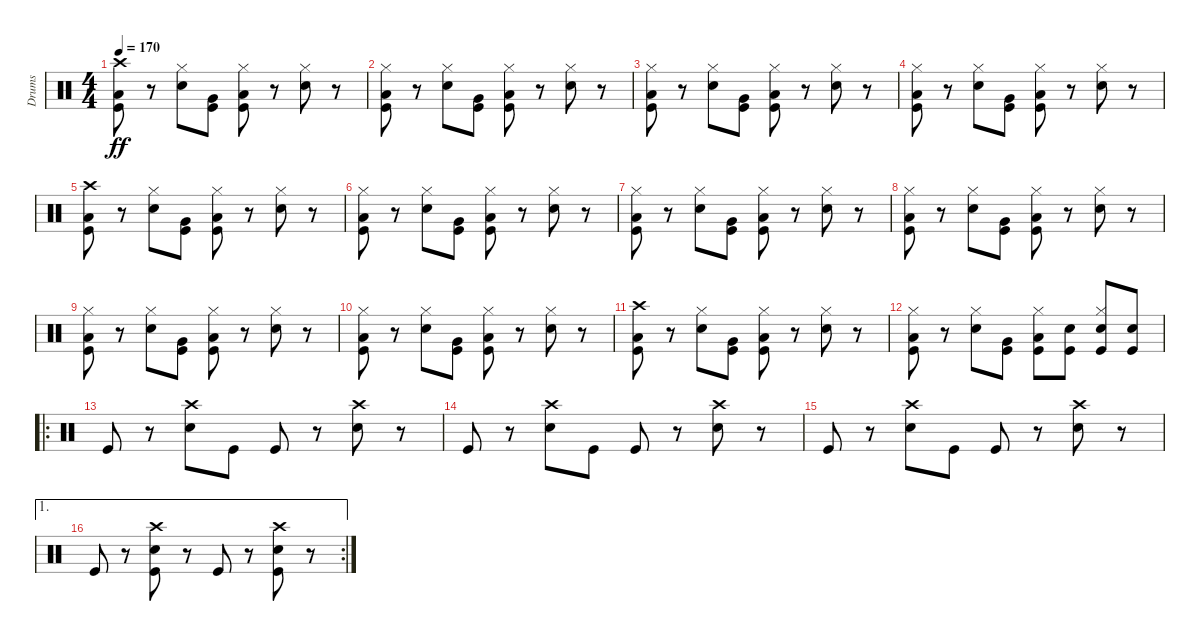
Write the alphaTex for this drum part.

\track ("Drums" "Drums") {instrument percussion}
\staff {score}
\articulation defaults
\ts (4 4)
\tempo 170
\clef neutral
\ks c
("Crash high (hit)" "Low Floor Tom (hit)" "Kick (hit)").8{dy ff} r.8 ("Hi-Hat (closed)" "Snare (hit) 2").8 ("Very Low Tom (hit)" "Kick (hit)").8 ("Hi-Hat (closed)" "Low Floor Tom (hit)" "Kick (hit)").8 r.8 ("Hi-Hat (closed)" "Snare (hit) 2").8 r.8 |
("Hi-Hat (closed)" "Low Floor Tom (hit)" "Kick (hit)").8 r.8 ("Hi-Hat (closed)" "Snare (hit) 2").8 ("Very Low Tom (hit)" "Kick (hit)").8 ("Hi-Hat (closed)" "Low Floor Tom (hit)" "Kick (hit)").8 r.8 ("Hi-Hat (closed)" "Snare (hit) 2").8 r.8 |
("Hi-Hat (closed)" "Low Floor Tom (hit)" "Kick (hit)").8 r.8 ("Hi-Hat (closed)" "Snare (hit) 2").8 ("Very Low Tom (hit)" "Kick (hit)").8 ("Hi-Hat (closed)" "Low Floor Tom (hit)" "Kick (hit)").8 r.8 ("Hi-Hat (closed)" "Snare (hit) 2").8 r.8 |
("Hi-Hat (closed)" "Low Floor Tom (hit)" "Kick (hit)").8 r.8 ("Hi-Hat (closed)" "Snare (hit) 2").8 ("Very Low Tom (hit)" "Kick (hit)").8 ("Hi-Hat (closed)" "Low Floor Tom (hit)" "Kick (hit)").8 r.8 ("Hi-Hat (closed)" "Snare (hit) 2").8 r.8 |
("Crash high (hit)" "Low Floor Tom (hit)" "Kick (hit)").8 r.8 ("Hi-Hat (closed)" "Snare (hit) 2").8 ("Very Low Tom (hit)" "Kick (hit)").8 ("Hi-Hat (closed)" "Low Floor Tom (hit)" "Kick (hit)").8 r.8 ("Hi-Hat (closed)" "Snare (hit) 2").8 r.8 |
("Hi-Hat (closed)" "Low Floor Tom (hit)" "Kick (hit)").8 r.8 ("Hi-Hat (closed)" "Snare (hit) 2").8 ("Very Low Tom (hit)" "Kick (hit)").8 ("Hi-Hat (closed)" "Low Floor Tom (hit)" "Kick (hit)").8 r.8 ("Hi-Hat (closed)" "Snare (hit) 2").8 r.8 |
("Hi-Hat (closed)" "Low Floor Tom (hit)" "Kick (hit)").8 r.8 ("Hi-Hat (closed)" "Snare (hit) 2").8 ("Very Low Tom (hit)" "Kick (hit)").8 ("Hi-Hat (closed)" "Low Floor Tom (hit)" "Kick (hit)").8 r.8 ("Hi-Hat (closed)" "Snare (hit) 2").8 r.8 |
("Hi-Hat (closed)" "Low Floor Tom (hit)" "Kick (hit)").8 r.8 ("Hi-Hat (closed)" "Snare (hit) 2").8 ("Very Low Tom (hit)" "Kick (hit)").8 ("Hi-Hat (closed)" "Low Floor Tom (hit)" "Kick (hit)").8 r.8 ("Hi-Hat (closed)" "Snare (hit) 2").8 r.8 |
("Hi-Hat (closed)" "Low Floor Tom (hit)" "Kick (hit)").8 r.8 ("Hi-Hat (closed)" "Snare (hit) 2").8 ("Very Low Tom (hit)" "Kick (hit)").8 ("Hi-Hat (closed)" "Low Floor Tom (hit)" "Kick (hit)").8 r.8 ("Hi-Hat (closed)" "Snare (hit) 2").8 r.8 |
("Hi-Hat (closed)" "Low Floor Tom (hit)" "Kick (hit)").8 r.8 ("Hi-Hat (closed)" "Snare (hit) 2").8 ("Very Low Tom (hit)" "Kick (hit)").8 ("Hi-Hat (closed)" "Low Floor Tom (hit)" "Kick (hit)").8 r.8 ("Hi-Hat (closed)" "Snare (hit) 2").8 r.8 |
("Crash high (hit)" "Low Floor Tom (hit)" "Kick (hit)").8 r.8 ("Hi-Hat (closed)" "Snare (hit) 2").8 ("Very Low Tom (hit)" "Kick (hit)").8 ("Hi-Hat (closed)" "Low Floor Tom (hit)" "Kick (hit)").8 r.8 ("Hi-Hat (closed)" "Snare (hit) 2").8 r.8 |
("Hi-Hat (closed)" "Low Floor Tom (hit)" "Kick (hit)").8 r.8 ("Hi-Hat (closed)" "Snare (hit) 2").8 ("Very Low Tom (hit)" "Kick (hit)").8 ("Hi-Hat (closed)" "Low Floor Tom (hit)" "Kick (hit)").8 ("Snare (hit) 2" "Kick (hit)").8 ("Hi-Hat (closed)" "Snare (hit) 2" "Kick (hit)").8 ("Snare (hit) 2" "Kick (hit)").8 |
\ro "Kick (hit)".8
r.8 ("Crash high (hit)" "Snare (hit) 2").8 "Kick (hit)".8 "Kick (hit)".8 r.8 ("Crash high (hit)" "Snare (hit) 2").8 r.8 |
"Kick (hit)".8 r.8 ("Crash high (hit)" "Snare (hit) 2").8 "Kick (hit)".8 "Kick (hit)".8 r.8 ("Crash high (hit)" "Snare (hit) 2").8 r.8 |
"Kick (hit)".8 r.8 ("Crash high (hit)" "Snare (hit) 2").8 "Kick (hit)".8 "Kick (hit)".8 r.8 ("Crash high (hit)" "Snare (hit) 2").8 r.8 |
\ae 1
\rc 2 "Kick (hit)".8
r.8 ("Crash high (hit)" "Snare (hit) 2" "Kick (hit)").8 r.8 "Kick (hit)".8 r.8 ("Crash high (hit)" "Snare (hit) 2" "Kick (hit)").8 r.8
